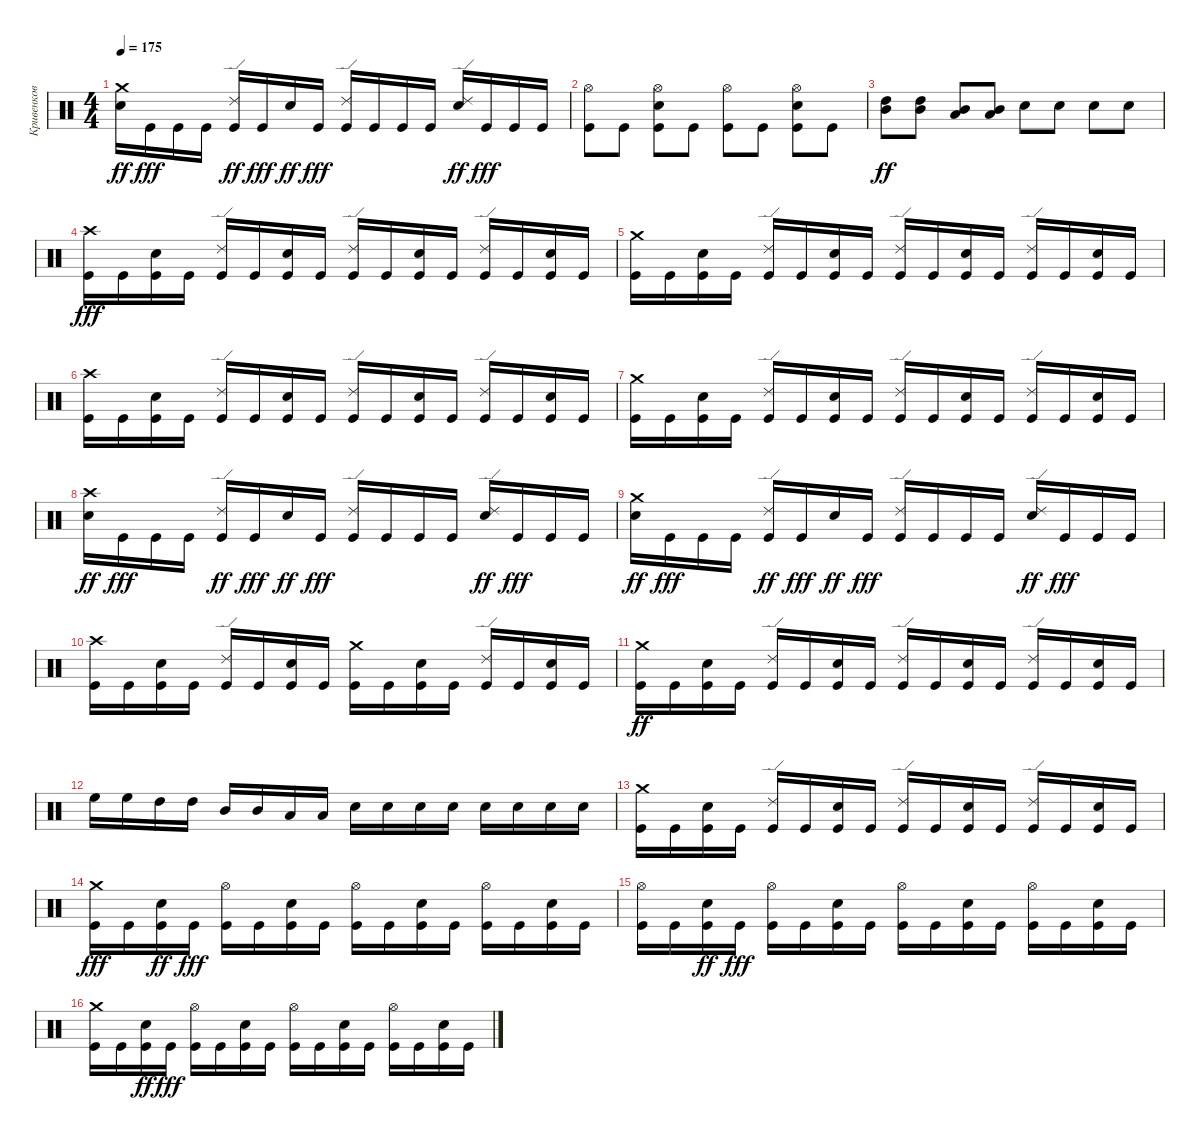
\track ("Кривенков" "Кривенков") {instrument percussion}
\staff {score}
\articulation defaults
\ts (4 4)
\tempo 175
\clef neutral
\ks c
("Crash medium (hit)" "Snare (hit) 2").16{dy ff} "Kick (hit)".16{dy fff} "Kick (hit)".16 "Kick (hit)".16 ("Kick (hit)" "Ride (edge) 2").16{dy ff} "Kick (hit)".16{dy fff} "Snare (hit) 2".16{dy ff} "Kick (hit)".16{dy fff} ("Ride (edge) 2" "Kick (hit)").16 "Kick (hit)".16 "Kick (hit)".16 "Kick (hit)".16 ("Ride (edge) 2" "Snare (hit) 2").16{dy ff} "Kick (hit)".16{dy fff} "Kick (hit)".16 "Kick (hit)".16 |
("Hi-Hat (open)" "Kick (hit)").8 "Kick (hit)".8 ("Hi-Hat (open)" "Snare (hit) 2" "Kick (hit)").8 "Kick (hit)".8 ("Hi-Hat (open)" "Kick (hit)").8 "Kick (hit)".8 ("Snare (hit) 2" "Kick (hit)" "Hi-Hat (open)").8 "Kick (hit)".8 |
("Mid Tom (hit)" "High Tom (hit)").8{dy ff} ("Mid Tom (hit)" "High Tom (hit)").8 ("Low Tom (hit)" "Mid Tom (hit)").8 ("Low Tom (hit)" "Mid Tom (hit)").8 "Snare (hit) 2".8 "Snare (hit) 2".8 "Snare (hit) 2".8 "Snare (hit) 2".8 |
("Crash high (hit)" "Kick (hit)").16{dy fff} "Kick (hit)".16 ("Snare (hit) 2" "Kick (hit)").16 "Kick (hit)".16 ("Ride (edge) 2" "Kick (hit)").16 "Kick (hit)".16 ("Snare (hit) 2" "Kick (hit)").16 "Kick (hit)".16 ("Ride (edge) 2" "Kick (hit)").16 "Kick (hit)".16 ("Snare (hit) 2" "Kick (hit)").16 "Kick (hit)".16 ("Ride (edge) 2" "Kick (hit)").16 "Kick (hit)".16 ("Snare (hit) 2" "Kick (hit)").16 "Kick (hit)".16 |
("Crash medium (hit)" "Kick (hit)").16 "Kick (hit)".16 ("Snare (hit) 2" "Kick (hit)").16 "Kick (hit)".16 ("Ride (edge) 2" "Kick (hit)").16 "Kick (hit)".16 ("Snare (hit) 2" "Kick (hit)").16 "Kick (hit)".16 ("Ride (edge) 2" "Kick (hit)").16 "Kick (hit)".16 ("Snare (hit) 2" "Kick (hit)").16 "Kick (hit)".16 ("Ride (edge) 2" "Kick (hit)").16 "Kick (hit)".16 ("Snare (hit) 2" "Kick (hit)").16 "Kick (hit)".16 |
("Crash high (hit)" "Kick (hit)").16 "Kick (hit)".16 ("Snare (hit) 2" "Kick (hit)").16 "Kick (hit)".16 ("Ride (edge) 2" "Kick (hit)").16 "Kick (hit)".16 ("Snare (hit) 2" "Kick (hit)").16 "Kick (hit)".16 ("Ride (edge) 2" "Kick (hit)").16 "Kick (hit)".16 ("Snare (hit) 2" "Kick (hit)").16 "Kick (hit)".16 ("Ride (edge) 2" "Kick (hit)").16 "Kick (hit)".16 ("Snare (hit) 2" "Kick (hit)").16 "Kick (hit)".16 |
("Crash medium (hit)" "Kick (hit)").16 "Kick (hit)".16 ("Snare (hit) 2" "Kick (hit)").16 "Kick (hit)".16 ("Ride (edge) 2" "Kick (hit)").16 "Kick (hit)".16 ("Snare (hit) 2" "Kick (hit)").16 "Kick (hit)".16 ("Ride (edge) 2" "Kick (hit)").16 "Kick (hit)".16 ("Snare (hit) 2" "Kick (hit)").16 "Kick (hit)".16 ("Ride (edge) 2" "Kick (hit)").16 "Kick (hit)".16 ("Snare (hit) 2" "Kick (hit)").16 "Kick (hit)".16 |
("Crash high (hit)" "Snare (hit) 2").16{dy ff} "Kick (hit)".16{dy fff} "Kick (hit)".16 "Kick (hit)".16 ("Kick (hit)" "Ride (edge) 2").16{dy ff} "Kick (hit)".16{dy fff} "Snare (hit) 2".16{dy ff} "Kick (hit)".16{dy fff} ("Ride (edge) 2" "Kick (hit)").16 "Kick (hit)".16 "Kick (hit)".16 "Kick (hit)".16 ("Ride (edge) 2" "Snare (hit) 2").16{dy ff} "Kick (hit)".16{dy fff} "Kick (hit)".16 "Kick (hit)".16 |
("Crash medium (hit)" "Snare (hit) 2").16{dy ff} "Kick (hit)".16{dy fff} "Kick (hit)".16 "Kick (hit)".16 ("Kick (hit)" "Ride (edge) 2").16{dy ff} "Kick (hit)".16{dy fff} "Snare (hit) 2".16{dy ff} "Kick (hit)".16{dy fff} ("Ride (edge) 2" "Kick (hit)").16 "Kick (hit)".16 "Kick (hit)".16 "Kick (hit)".16 ("Ride (edge) 2" "Snare (hit) 2").16{dy ff} "Kick (hit)".16{dy fff} "Kick (hit)".16 "Kick (hit)".16 |
("Crash high (hit)" "Kick (hit)").16 "Kick (hit)".16 ("Snare (hit) 2" "Kick (hit)").16 "Kick (hit)".16 ("Ride (edge) 2" "Kick (hit)").16 "Kick (hit)".16 ("Snare (hit) 2" "Kick (hit)").16 "Kick (hit)".16 ("Crash medium (hit)" "Kick (hit)").16 "Kick (hit)".16 ("Snare (hit) 2" "Kick (hit)").16 "Kick (hit)".16 ("Ride (edge) 2" "Kick (hit)").16 "Kick (hit)".16 ("Snare (hit) 2" "Kick (hit)").16 "Kick (hit)".16 |
("Crash medium (hit)" "Kick (hit)").16{dy ff} "Kick (hit)".16 ("Kick (hit)" "Snare (hit) 2").16 "Kick (hit)".16 ("Ride (edge) 2" "Kick (hit)").16 "Kick (hit)".16 ("Snare (hit) 2" "Kick (hit)").16 "Kick (hit)".16 ("Ride (edge) 2" "Kick (hit)").16 "Kick (hit)".16 ("Snare (hit) 2" "Kick (hit)").16 "Kick (hit)".16 ("Kick (hit)" "Ride (edge) 2").16 "Kick (hit)".16 ("Kick (hit)" "Snare (hit) 2").16 "Kick (hit)".16 |
"High Floor Tom (hit)".16 "High Floor Tom (hit)".16 "High Tom (hit)".16 "High Tom (hit)".16 "Mid Tom (hit)".16 "Mid Tom (hit)".16 "Low Tom (hit)".16 "Low Tom (hit)".16 "Snare (hit) 2".16 "Snare (hit) 2".16 "Snare (hit) 2".16 "Snare (hit) 2".16 "Snare (hit) 2".16 "Snare (hit) 2".16 "Snare (hit) 2".16 "Snare (hit) 2".16 |
("Crash medium (hit)" "Kick (hit)").16 "Kick (hit)".16 ("Snare (hit) 2" "Kick (hit)").16 "Kick (hit)".16 ("Ride (edge) 2" "Kick (hit)").16 "Kick (hit)".16 ("Kick (hit)" "Snare (hit) 2").16 "Kick (hit)".16 ("Ride (edge) 2" "Kick (hit)").16 "Kick (hit)".16 ("Snare (hit) 2" "Kick (hit)").16 "Kick (hit)".16 ("Ride (edge) 2" "Kick (hit)").16 "Kick (hit)".16 ("Snare (hit) 2" "Kick (hit)").16 "Kick (hit)".16 |
("Crash medium (hit)" "Kick (hit)").16{dy fff} "Kick (hit)".16 ("Kick (hit)" "Snare (hit) 2").16{dy ff} "Kick (hit)".16{dy fff} ("Hi-Hat (open)" "Kick (hit)").16 "Kick (hit)".16 ("Snare (hit) 2" "Kick (hit)").16 "Kick (hit)".16 ("Hi-Hat (open)" "Kick (hit)").16 "Kick (hit)".16 ("Snare (hit) 2" "Kick (hit)").16 "Kick (hit)".16 ("Hi-Hat (open)" "Kick (hit)").16 "Kick (hit)".16 ("Snare (hit) 2" "Kick (hit)").16 "Kick (hit)".16 |
("Hi-Hat (open)" "Kick (hit)").16 "Kick (hit)".16 ("Kick (hit)" "Snare (hit) 2").16{dy ff} "Kick (hit)".16{dy fff} ("Hi-Hat (open)" "Kick (hit)").16 "Kick (hit)".16 ("Snare (hit) 2" "Kick (hit)").16 "Kick (hit)".16 ("Hi-Hat (open)" "Kick (hit)").16 "Kick (hit)".16 ("Snare (hit) 2" "Kick (hit)").16 "Kick (hit)".16 ("Hi-Hat (open)" "Kick (hit)").16 "Kick (hit)".16 ("Snare (hit) 2" "Kick (hit)").16 "Kick (hit)".16 |
("Crash medium (hit)" "Kick (hit)").16 "Kick (hit)".16 ("Kick (hit)" "Snare (hit) 2").16{dy ff} "Kick (hit)".16{dy fff} ("Hi-Hat (open)" "Kick (hit)").16 "Kick (hit)".16 ("Snare (hit) 2" "Kick (hit)").16 "Kick (hit)".16 ("Hi-Hat (open)" "Kick (hit)").16 "Kick (hit)".16 ("Snare (hit) 2" "Kick (hit)").16 "Kick (hit)".16 ("Hi-Hat (open)" "Kick (hit)").16 "Kick (hit)".16 ("Snare (hit) 2" "Kick (hit)").16 "Kick (hit)".16
